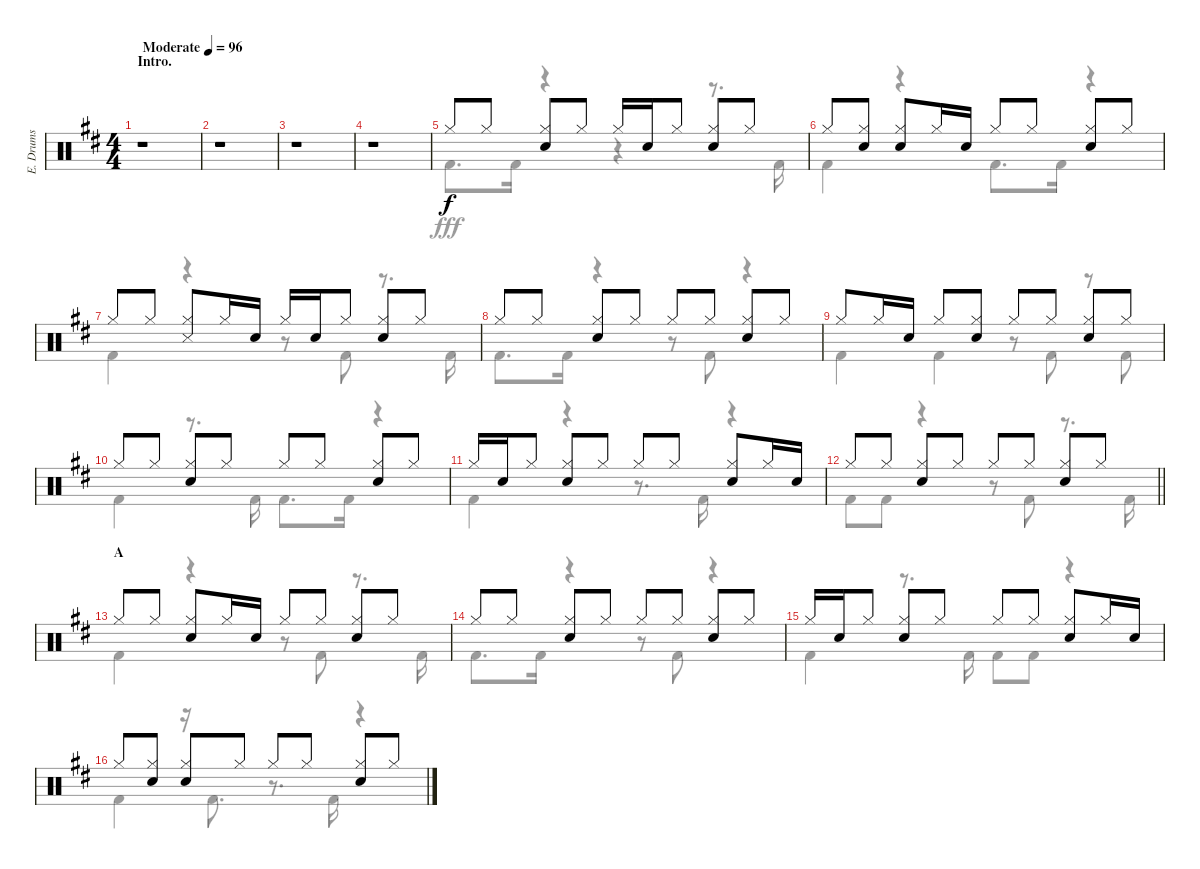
\track ("E. Drums" "E. Drums") {instrument percussion}
\staff {score}
\articulation defaults
\voice
\ts (4 4)
\section ("" "Intro.")
\tempo (96 "Moderate")
\clef neutral
\ks d
r.1{dy f} |
r.1 |
r.1 |
r.1 |
"Hi-Hat (closed)".8 "Hi-Hat (closed)".8 ("Hi-Hat (closed)" "Electric Snare (hit)").8 "Hi-Hat (closed)".8 "Hi-Hat (closed)".16 "Electric Snare (hit)".16 "Hi-Hat (closed)".8 ("Hi-Hat (closed)" "Electric Snare (hit)").8 "Hi-Hat (closed)".8 |
"Hi-Hat (closed)".8 ("Hi-Hat (closed)" "Electric Snare (hit)").8 ("Hi-Hat (closed)" "Electric Snare (hit)").8 "Hi-Hat (closed)".16 "Electric Snare (hit)".16 "Hi-Hat (closed)".8 "Hi-Hat (closed)".8 ("Hi-Hat (closed)" "Electric Snare (hit)").8 "Hi-Hat (closed)".8 |
"Hi-Hat (closed)".8 "Hi-Hat (closed)".8 ("Hi-Hat (closed)" "Snare (side stick) 3").8 "Hi-Hat (closed)".16 "Electric Snare (hit)".16 "Hi-Hat (closed)".16 "Electric Snare (hit)".16 "Hi-Hat (closed)".8 ("Hi-Hat (closed)" "Electric Snare (hit)").8 "Hi-Hat (closed)".8 |
"Hi-Hat (closed)".8 "Hi-Hat (closed)".8 ("Hi-Hat (closed)" "Electric Snare (hit)").8 "Hi-Hat (closed)".8 "Hi-Hat (closed)".8 "Hi-Hat (closed)".8 ("Hi-Hat (closed)" "Electric Snare (hit)").8 "Hi-Hat (closed)".8 |
"Hi-Hat (closed)".8 "Hi-Hat (closed)".16 "Electric Snare (hit)".16 "Hi-Hat (closed)".8 ("Hi-Hat (closed)" "Electric Snare (hit)").8 "Hi-Hat (closed)".8 "Hi-Hat (closed)".8 ("Hi-Hat (closed)" "Electric Snare (hit)").8 "Hi-Hat (closed)".8 |
"Hi-Hat (closed)".8 "Hi-Hat (closed)".8 ("Hi-Hat (closed)" "Electric Snare (hit)").8 "Hi-Hat (closed)".8 "Hi-Hat (closed)".8 "Hi-Hat (closed)".8 ("Hi-Hat (closed)" "Electric Snare (hit)").8 "Hi-Hat (closed)".8 |
"Hi-Hat (closed)".16 "Electric Snare (hit)".16 "Hi-Hat (closed)".8 ("Hi-Hat (closed)" "Electric Snare (hit)").8 "Hi-Hat (closed)".8 "Hi-Hat (closed)".8 "Hi-Hat (closed)".8 ("Hi-Hat (closed)" "Electric Snare (hit)").8 "Hi-Hat (closed)".16 "Electric Snare (hit)".16 |
\barLineRight lightlight "Hi-Hat (closed)".8 "Hi-Hat (closed)".8
("Hi-Hat (closed)" "Electric Snare (hit)").8 "Hi-Hat (closed)".8 "Hi-Hat (closed)".8 "Hi-Hat (closed)".8 ("Hi-Hat (closed)" "Electric Snare (hit)").8 "Hi-Hat (closed)".8 |
\section ("" "A")
"Hi-Hat (closed)".8 "Hi-Hat (closed)".8 ("Hi-Hat (closed)" "Electric Snare (hit)").8 "Hi-Hat (closed)".16 "Electric Snare (hit)".16 "Hi-Hat (closed)".8 "Hi-Hat (closed)".8 ("Hi-Hat (closed)" "Electric Snare (hit)").8 "Hi-Hat (closed)".8 |
"Hi-Hat (closed)".8 "Hi-Hat (closed)".8 ("Hi-Hat (closed)" "Electric Snare (hit)").8 "Hi-Hat (closed)".8 "Hi-Hat (closed)".8 "Hi-Hat (closed)".8 ("Hi-Hat (closed)" "Electric Snare (hit)").8 "Hi-Hat (closed)".8 |
"Hi-Hat (closed)".16 "Electric Snare (hit)".16 "Hi-Hat (closed)".8 ("Hi-Hat (closed)" "Electric Snare (hit)").8 "Hi-Hat (closed)".8 "Hi-Hat (closed)".8 "Hi-Hat (closed)".8 ("Hi-Hat (closed)" "Electric Snare (hit)").8 "Hi-Hat (closed)".16 "Electric Snare (hit)".16 |
"Hi-Hat (closed)".8 ("Hi-Hat (closed)" "Electric Snare (hit)").8 ("Hi-Hat (closed)" "Electric Snare (hit)").8 "Hi-Hat (closed)".8 "Hi-Hat (closed)".8 "Hi-Hat (closed)".8 ("Hi-Hat (closed)" "Electric Snare (hit)").8 "Hi-Hat (closed)".8
\voice
\clef neutral
\ottava regular
\simile none
\ks d
r.1{dy fff} |
r.1 |
r.1 |
r.1 |
"Kick (hit) 2".8{d} "Kick (hit) 2".16 r.4 r.4 r.8{d} "Kick (hit) 2".16 |
"Kick (hit) 2".4 r.4 "Kick (hit) 2".8{d} "Kick (hit) 2".16 r.4 |
"Kick (hit) 2".4 r.4 r.8 "Kick (hit) 2".8 r.8{d} "Kick (hit) 2".16 |
"Kick (hit) 2".8{d} "Kick (hit) 2".16 r.4 r.8 "Kick (hit) 2".8 r.4 |
"Kick (hit) 2".4 "Kick (hit) 2".4 r.8 "Kick (hit) 2".8 r.8 "Kick (hit) 2".8 |
"Kick (hit) 2".4 r.8{d} "Kick (hit) 2".16 "Kick (hit) 2".8{d} "Kick (hit) 2".16 r.4 |
"Kick (hit) 2".4 r.4 r.8{d} "Kick (hit) 2".16 r.4 |
\barLineRight lightlight "Kick (hit) 2".8 "Kick (hit) 2".8
r.4 r.8 "Kick (hit) 2".8 r.8{d} "Kick (hit) 2".16 |
"Kick (hit) 2".4 r.4 r.8 "Kick (hit) 2".8 r.8{d} "Kick (hit) 2".16 |
"Kick (hit) 2".8{d} "Kick (hit) 2".16 r.4 r.8 "Kick (hit) 2".8 r.4 |
"Kick (hit) 2".4 r.8{d} "Kick (hit) 2".16 "Kick (hit) 2".8 "Kick (hit) 2".8 r.4 |
"Kick (hit) 2".4 r.16 "Kick (hit) 2".8{d} r.8{d} "Kick (hit) 2".16 r.4
